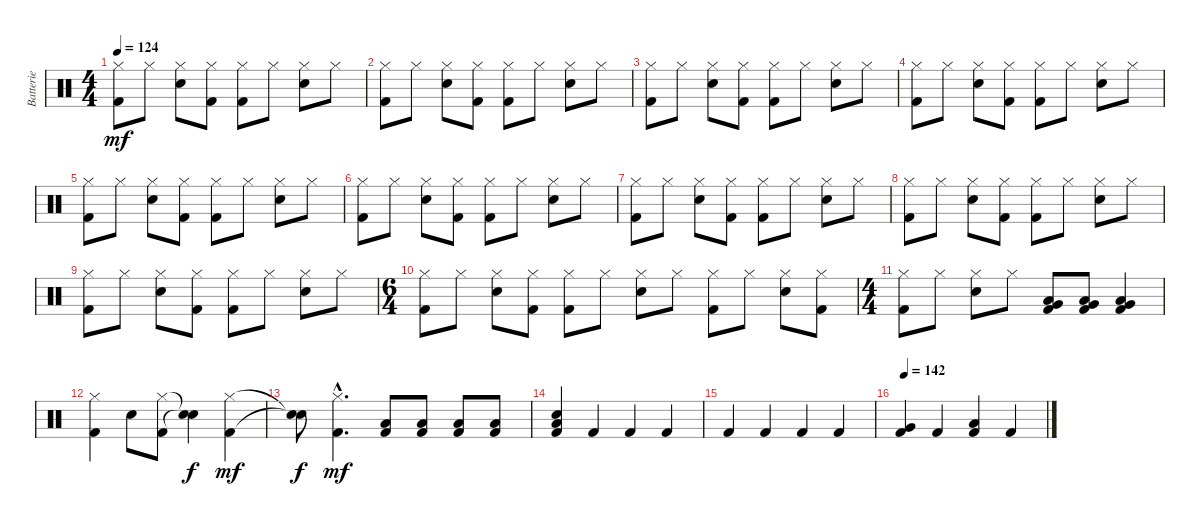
\track ("Batterie" "Batterie") {instrument percussion}
\staff {score}
\articulation defaults
\ts (4 4)
\tempo 124
\clef neutral
\ks c
("Hi-Hat (closed)" "Kick (hit) 2").8{dy mf} "Hi-Hat (closed)".8 ("Hi-Hat (closed)" "Snare (hit) 2").8 ("Hi-Hat (closed)" "Kick (hit) 2").8 ("Hi-Hat (closed)" "Kick (hit) 2").8 "Hi-Hat (closed)".8 ("Hi-Hat (closed)" "Snare (hit) 2").8 "Hi-Hat (closed)".8 |
("Hi-Hat (closed)" "Kick (hit) 2").8 "Hi-Hat (closed)".8 ("Hi-Hat (closed)" "Snare (hit) 2").8 ("Hi-Hat (closed)" "Kick (hit) 2").8 ("Hi-Hat (closed)" "Kick (hit) 2").8 "Hi-Hat (closed)".8 ("Hi-Hat (closed)" "Snare (hit) 2").8 "Hi-Hat (closed)".8 |
("Hi-Hat (closed)" "Kick (hit) 2").8 "Hi-Hat (closed)".8 ("Hi-Hat (closed)" "Snare (hit) 2").8 ("Hi-Hat (closed)" "Kick (hit) 2").8 ("Hi-Hat (closed)" "Kick (hit) 2").8 "Hi-Hat (closed)".8 ("Hi-Hat (closed)" "Snare (hit) 2").8 "Hi-Hat (closed)".8 |
("Hi-Hat (closed)" "Kick (hit) 2").8 "Hi-Hat (closed)".8 ("Hi-Hat (closed)" "Snare (hit) 2").8 ("Hi-Hat (closed)" "Kick (hit) 2").8 ("Hi-Hat (closed)" "Kick (hit) 2").8 "Hi-Hat (closed)".8 ("Hi-Hat (closed)" "Snare (hit) 2").8 "Hi-Hat (closed)".8 |
("Hi-Hat (closed)" "Kick (hit) 2").8 "Hi-Hat (closed)".8 ("Hi-Hat (closed)" "Snare (hit) 2").8 ("Hi-Hat (closed)" "Kick (hit) 2").8 ("Hi-Hat (closed)" "Kick (hit) 2").8 "Hi-Hat (closed)".8 ("Hi-Hat (closed)" "Snare (hit) 2").8 "Hi-Hat (closed)".8 |
("Hi-Hat (closed)" "Kick (hit) 2").8 "Hi-Hat (closed)".8 ("Hi-Hat (closed)" "Snare (hit) 2").8 ("Hi-Hat (closed)" "Kick (hit) 2").8 ("Hi-Hat (closed)" "Kick (hit) 2").8 "Hi-Hat (closed)".8 ("Hi-Hat (closed)" "Snare (hit) 2").8 "Hi-Hat (closed)".8 |
("Hi-Hat (closed)" "Kick (hit) 2").8 "Hi-Hat (closed)".8 ("Hi-Hat (closed)" "Snare (hit) 2").8 ("Hi-Hat (closed)" "Kick (hit) 2").8 ("Hi-Hat (closed)" "Kick (hit) 2").8 "Hi-Hat (closed)".8 ("Hi-Hat (closed)" "Snare (hit) 2").8 "Hi-Hat (closed)".8 |
("Hi-Hat (closed)" "Kick (hit) 2").8 "Hi-Hat (closed)".8 ("Hi-Hat (closed)" "Snare (hit) 2").8 ("Hi-Hat (closed)" "Kick (hit) 2").8 ("Hi-Hat (closed)" "Kick (hit) 2").8 "Hi-Hat (closed)".8 ("Hi-Hat (closed)" "Snare (hit) 2").8 "Hi-Hat (closed)".8 |
("Hi-Hat (closed)" "Kick (hit) 2").8 "Hi-Hat (closed)".8 ("Hi-Hat (closed)" "Snare (hit) 2").8 ("Hi-Hat (closed)" "Kick (hit) 2").8 ("Hi-Hat (closed)" "Kick (hit) 2").8 "Hi-Hat (closed)".8 ("Hi-Hat (closed)" "Snare (hit) 2").8 "Hi-Hat (closed)".8 |
\ts (6 4)
("Hi-Hat (closed)" "Kick (hit) 2").8 "Hi-Hat (closed)".8 ("Hi-Hat (closed)" "Snare (hit) 2").8 ("Hi-Hat (closed)" "Kick (hit) 2").8 ("Hi-Hat (closed)" "Kick (hit) 2").8 "Hi-Hat (closed)".8 ("Hi-Hat (closed)" "Snare (hit) 2").8 "Hi-Hat (closed)".8 ("Hi-Hat (closed)" "Kick (hit) 2").8 "Hi-Hat (closed)".8 ("Hi-Hat (closed)" "Snare (hit) 2").8 ("Hi-Hat (closed)" "Kick (hit) 2").8 |
\ts (4 4)
("Hi-Hat (closed)" "Kick (hit) 2").8 "Hi-Hat (closed)".8 ("Hi-Hat (closed)" "Snare (hit) 2").8 "Hi-Hat (closed)".8 ("Very Low Tom (hit)" "Low Floor Tom (hit)" "Kick (hit) 2").8 ("Very Low Tom (hit)" "Low Floor Tom (hit)" "Kick (hit) 2").8 ("Very Low Tom (hit)" "Low Floor Tom (hit)" "Kick (hit) 2").4 |
("Hi-Hat (closed)" "Kick (hit) 2").4 "Snare (hit) 2".8 ("Hi-Hat (closed)" "Kick (hit) 2").8 ("Snare (hit)"{t} "Snare (hit)"{t}).4{dy f} ("Hi-Hat (closed)" "Kick (hit) 2").4{dy mf} |
("Snare (hit)"{t} "Snare (hit)"{t}).8{dy f} ("Hi-Hat (closed)"{hac} "Kick (hit) 2"{hac}).4{d dy mf} ("Low Floor Tom (hit)" "Kick (hit) 2").8 ("Low Floor Tom (hit)" "Kick (hit) 2").8 ("Low Floor Tom (hit)" "Kick (hit) 2").8 ("Low Floor Tom (hit)" "Kick (hit) 2").8 |
("Low Floor Tom (hit)" "Snare (hit) 2" "Kick (hit) 2").4 "Kick (hit) 2".4 "Kick (hit) 2".4 "Kick (hit) 2".4 |
"Kick (hit) 2".4 "Kick (hit) 2".4 "Kick (hit) 2".4 "Kick (hit) 2".4 |
\tempo 142
("Very Low Tom (hit)" "Kick (hit) 2").4 "Kick (hit) 2".4 ("Low Floor Tom (hit)" "Kick (hit) 2").4 "Kick (hit) 2".4
